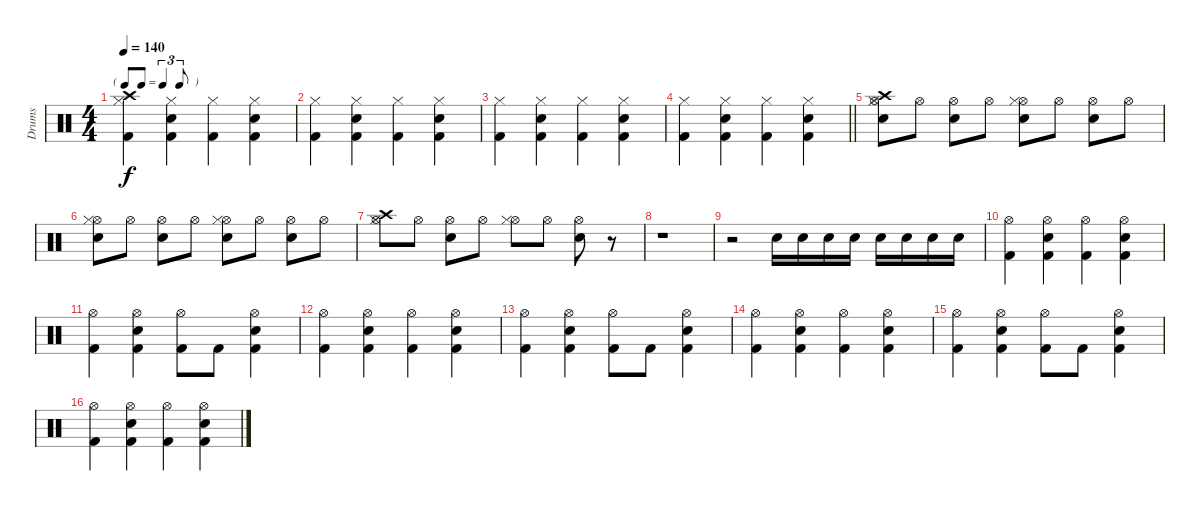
\track ("Drums" "Drums") {instrument percussion}
\staff {score}
\articulation defaults
\ts (4 4)
\tf triplet8th
\tempo 140
\clef neutral
\ks c
("Hi-Hat (closed)" "Kick (hit) 2" "Crash high (hit)").4{dy f} ("Hi-Hat (closed)" "Kick (hit) 2" "Snare (hit) 2").4 ("Hi-Hat (closed)" "Kick (hit) 2").4 ("Hi-Hat (closed)" "Kick (hit) 2" "Snare (hit) 2").4 |
("Hi-Hat (closed)" "Kick (hit) 2").4 ("Hi-Hat (closed)" "Kick (hit) 2" "Snare (hit) 2").4 ("Hi-Hat (closed)" "Kick (hit) 2").4 ("Hi-Hat (closed)" "Kick (hit) 2" "Snare (hit) 2").4 |
("Hi-Hat (closed)" "Kick (hit) 2").4 ("Hi-Hat (closed)" "Kick (hit) 2" "Snare (hit) 2").4 ("Hi-Hat (closed)" "Kick (hit) 2").4 ("Hi-Hat (closed)" "Kick (hit) 2" "Snare (hit) 2").4 |
\barLineRight lightlight
("Hi-Hat (closed)" "Kick (hit) 2").4 ("Hi-Hat (closed)" "Kick (hit) 2" "Snare (hit) 2").4 ("Hi-Hat (closed)" "Kick (hit) 2").4 ("Hi-Hat (closed)" "Kick (hit) 2" "Snare (hit) 2").4 |
("Hi-Hat (open)" "Snare (hit) 2" "Hi-Hat (closed)" "Crash high (hit)").8 "Hi-Hat (open)".8 ("Hi-Hat (open)" "Snare (hit) 2").8 "Hi-Hat (open)".8 ("Hi-Hat (open)" "Snare (hit) 2" "Hi-Hat (closed)").8 "Hi-Hat (open)".8 ("Hi-Hat (open)" "Snare (hit) 2").8 "Hi-Hat (open)".8 |
("Hi-Hat (open)" "Snare (hit) 2" "Hi-Hat (closed)").8 "Hi-Hat (open)".8 ("Hi-Hat (open)" "Snare (hit) 2").8 "Hi-Hat (open)".8 ("Hi-Hat (open)" "Snare (hit) 2" "Hi-Hat (closed)").8 "Hi-Hat (open)".8 ("Hi-Hat (open)" "Snare (hit) 2").8 "Hi-Hat (open)".8 |
("Hi-Hat (open)" "Hi-Hat (closed)" "Crash high (hit)").8 "Hi-Hat (open)".8 ("Hi-Hat (open)" "Snare (hit) 2").8 "Hi-Hat (open)".8 ("Hi-Hat (open)" "Hi-Hat (closed)").8 "Hi-Hat (open)".8 ("Hi-Hat (open)" "Snare (hit) 2").8 r.8 |
r.1 |
r.2 "Snare (hit) 2".16 "Snare (hit) 2".16 "Snare (hit) 2".16 "Snare (hit) 2".16 "Snare (hit) 2".16 "Snare (hit) 2".16 "Snare (hit) 2".16 "Snare (hit) 2".16 |
("Hi-Hat (open)" "Kick (hit) 2").4 ("Hi-Hat (open)" "Kick (hit) 2" "Snare (hit) 2").4 ("Hi-Hat (open)" "Kick (hit) 2").4 ("Hi-Hat (open)" "Kick (hit) 2" "Snare (hit) 2").4 |
("Hi-Hat (open)" "Kick (hit) 2").4 ("Hi-Hat (open)" "Kick (hit) 2" "Snare (hit) 2").4 ("Hi-Hat (open)" "Kick (hit) 2").8 "Kick (hit) 2".8 ("Hi-Hat (open)" "Kick (hit) 2" "Snare (hit) 2").4 |
("Hi-Hat (open)" "Kick (hit) 2").4 ("Hi-Hat (open)" "Kick (hit) 2" "Snare (hit) 2").4 ("Hi-Hat (open)" "Kick (hit) 2").4 ("Hi-Hat (open)" "Kick (hit) 2" "Snare (hit) 2").4 |
("Hi-Hat (open)" "Kick (hit) 2").4 ("Hi-Hat (open)" "Kick (hit) 2" "Snare (hit) 2").4 ("Hi-Hat (open)" "Kick (hit) 2").8 "Kick (hit) 2".8 ("Hi-Hat (open)" "Kick (hit) 2" "Snare (hit) 2").4 |
("Hi-Hat (open)" "Kick (hit) 2").4 ("Hi-Hat (open)" "Kick (hit) 2" "Snare (hit) 2").4 ("Hi-Hat (open)" "Kick (hit) 2").4 ("Hi-Hat (open)" "Kick (hit) 2" "Snare (hit) 2").4 |
("Hi-Hat (open)" "Kick (hit) 2").4 ("Hi-Hat (open)" "Kick (hit) 2" "Snare (hit) 2").4 ("Hi-Hat (open)" "Kick (hit) 2").8 "Kick (hit) 2".8 ("Hi-Hat (open)" "Kick (hit) 2" "Snare (hit) 2").4 |
("Hi-Hat (open)" "Kick (hit) 2").4 ("Hi-Hat (open)" "Kick (hit) 2" "Snare (hit) 2").4 ("Hi-Hat (open)" "Kick (hit) 2").4 ("Hi-Hat (open)" "Kick (hit) 2" "Snare (hit) 2").4
